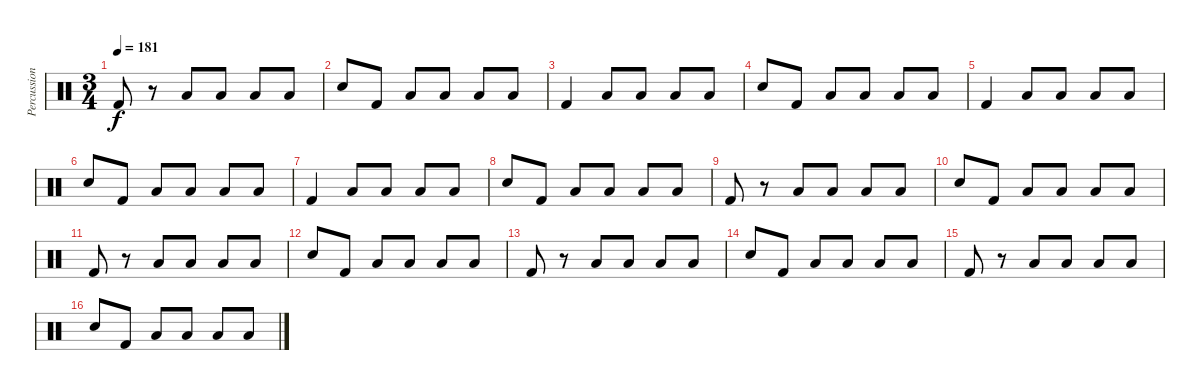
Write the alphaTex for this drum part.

\track ("Percussion" "Percussion") {instrument percussion}
\staff {score}
\articulation defaults
\ts (3 4)
\tempo 181
\clef neutral
\ks c "Kick (hit) 2".8{dy f}
r.8 "Low Floor Tom (hit)".8 "Low Floor Tom (hit)".8 "Low Floor Tom (hit)".8 "Low Floor Tom (hit)".8 |
"Snare (hit) 2".8 "Kick (hit) 2".8 "Low Floor Tom (hit)".8 "Low Floor Tom (hit)".8 "Low Floor Tom (hit)".8 "Low Floor Tom (hit)".8 |
"Kick (hit) 2".4 "Low Floor Tom (hit)".8 "Low Floor Tom (hit)".8 "Low Floor Tom (hit)".8 "Low Floor Tom (hit)".8 |
"Snare (hit) 2".8 "Kick (hit) 2".8 "Low Floor Tom (hit)".8 "Low Floor Tom (hit)".8 "Low Floor Tom (hit)".8 "Low Floor Tom (hit)".8 |
"Kick (hit) 2".4 "Low Floor Tom (hit)".8 "Low Floor Tom (hit)".8 "Low Floor Tom (hit)".8 "Low Floor Tom (hit)".8 |
"Snare (hit) 2".8 "Kick (hit) 2".8 "Low Floor Tom (hit)".8 "Low Floor Tom (hit)".8 "Low Floor Tom (hit)".8 "Low Floor Tom (hit)".8 |
"Kick (hit) 2".4 "Low Floor Tom (hit)".8 "Low Floor Tom (hit)".8 "Low Floor Tom (hit)".8 "Low Floor Tom (hit)".8 |
"Snare (hit) 2".8 "Kick (hit) 2".8 "Low Floor Tom (hit)".8 "Low Floor Tom (hit)".8 "Low Floor Tom (hit)".8 "Low Floor Tom (hit)".8 |
"Kick (hit) 2".8 r.8 "Low Floor Tom (hit)".8 "Low Floor Tom (hit)".8 "Low Floor Tom (hit)".8 "Low Floor Tom (hit)".8 |
"Snare (hit) 2".8 "Kick (hit) 2".8 "Low Floor Tom (hit)".8 "Low Floor Tom (hit)".8 "Low Floor Tom (hit)".8 "Low Floor Tom (hit)".8 |
"Kick (hit) 2".8 r.8 "Low Floor Tom (hit)".8 "Low Floor Tom (hit)".8 "Low Floor Tom (hit)".8 "Low Floor Tom (hit)".8 |
"Snare (hit) 2".8 "Kick (hit) 2".8 "Low Floor Tom (hit)".8 "Low Floor Tom (hit)".8 "Low Floor Tom (hit)".8 "Low Floor Tom (hit)".8 |
"Kick (hit) 2".8 r.8 "Low Floor Tom (hit)".8 "Low Floor Tom (hit)".8 "Low Floor Tom (hit)".8 "Low Floor Tom (hit)".8 |
"Snare (hit) 2".8 "Kick (hit) 2".8 "Low Floor Tom (hit)".8 "Low Floor Tom (hit)".8 "Low Floor Tom (hit)".8 "Low Floor Tom (hit)".8 |
"Kick (hit) 2".8 r.8 "Low Floor Tom (hit)".8 "Low Floor Tom (hit)".8 "Low Floor Tom (hit)".8 "Low Floor Tom (hit)".8 |
"Snare (hit) 2".8 "Kick (hit) 2".8 "Low Floor Tom (hit)".8 "Low Floor Tom (hit)".8 "Low Floor Tom (hit)".8 "Low Floor Tom (hit)".8
